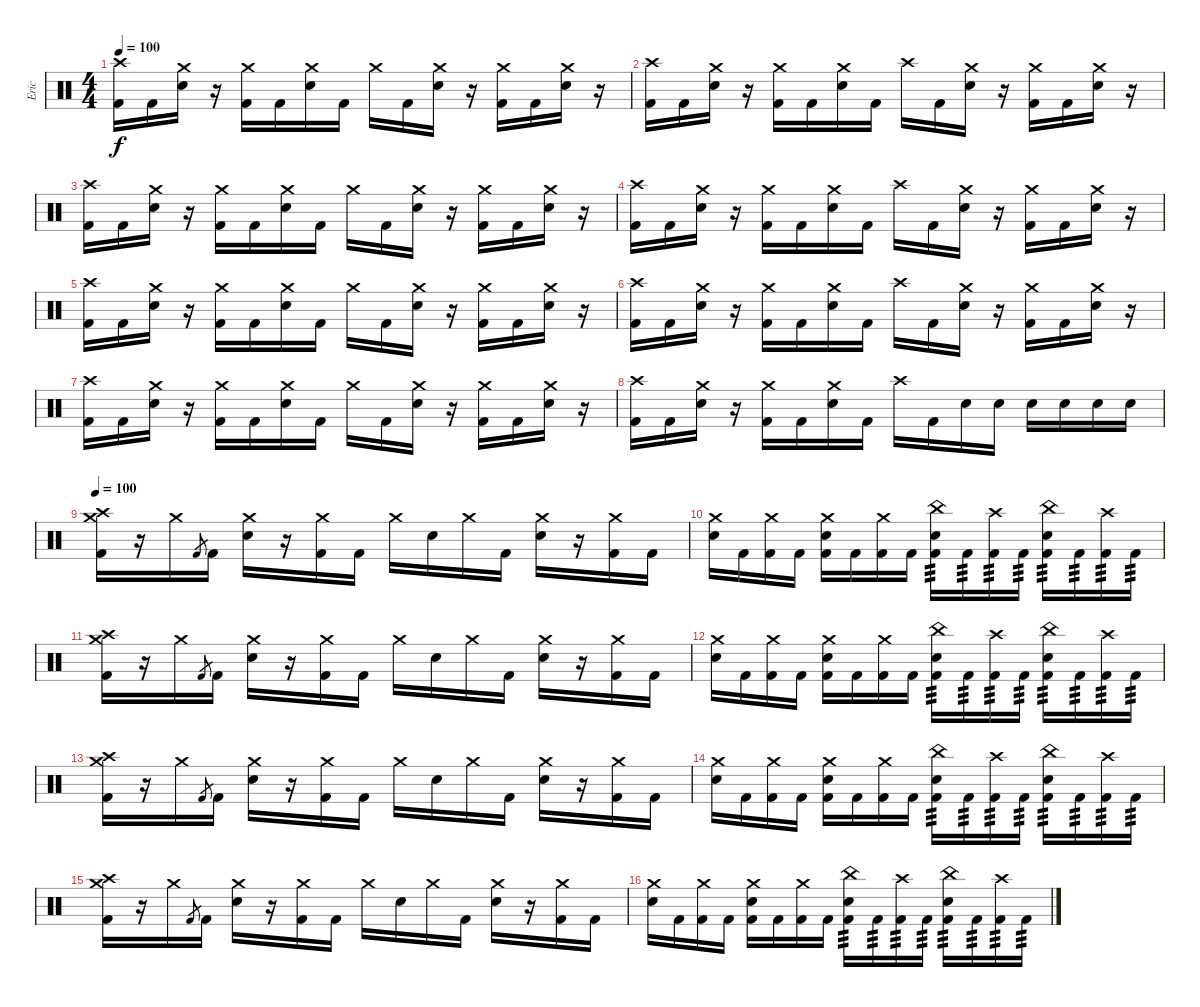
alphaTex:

\track ("Eric" "Eric") {instrument percussion}
\staff {score}
\articulation defaults
\ts (4 4)
\tempo 100
\clef neutral
\ks c
("Crash high (hit)" "Kick (hit) 2").16{dy f} "Kick (hit) 2".16 ("Crash medium (hit)" "Electric Snare (hit)").16 r.16 ("Crash medium (hit)" "Kick (hit) 2").16 "Kick (hit) 2".16 ("Crash medium (hit)" "Electric Snare (hit)").16 "Kick (hit) 2".16 "Crash medium (hit)".16 "Kick (hit) 2".16 ("Crash medium (hit)" "Electric Snare (hit)").16 r.16 ("Crash medium (hit)" "Kick (hit) 2").16 "Kick (hit) 2".16 ("Crash medium (hit)" "Electric Snare (hit)").16 r.16 |
("Crash high (hit)" "Kick (hit) 2").16 "Kick (hit) 2".16 ("Crash medium (hit)" "Electric Snare (hit)").16 r.16 ("Crash medium (hit)" "Kick (hit) 2").16 "Kick (hit) 2".16 ("Crash medium (hit)" "Electric Snare (hit)").16 "Kick (hit) 2".16 "Crash high (hit)".16 "Kick (hit) 2".16 ("Crash medium (hit)" "Electric Snare (hit)").16 r.16 ("Crash medium (hit)" "Kick (hit) 2").16 "Kick (hit) 2".16 ("Crash medium (hit)" "Electric Snare (hit)").16 r.16 |
("Crash high (hit)" "Kick (hit) 2").16 "Kick (hit) 2".16 ("Crash medium (hit)" "Electric Snare (hit)").16 r.16 ("Crash medium (hit)" "Kick (hit) 2").16 "Kick (hit) 2".16 ("Crash medium (hit)" "Electric Snare (hit)").16 "Kick (hit) 2".16 "Crash medium (hit)".16 "Kick (hit) 2".16 ("Crash medium (hit)" "Electric Snare (hit)").16 r.16 ("Crash medium (hit)" "Kick (hit) 2").16 "Kick (hit) 2".16 ("Crash medium (hit)" "Electric Snare (hit)").16 r.16 |
("Crash high (hit)" "Kick (hit) 2").16 "Kick (hit) 2".16 ("Crash medium (hit)" "Electric Snare (hit)").16 r.16 ("Crash medium (hit)" "Kick (hit) 2").16 "Kick (hit) 2".16 ("Crash medium (hit)" "Electric Snare (hit)").16 "Kick (hit) 2".16 "Crash high (hit)".16 "Kick (hit) 2".16 ("Crash medium (hit)" "Electric Snare (hit)").16 r.16 ("Crash medium (hit)" "Kick (hit) 2").16 "Kick (hit) 2".16 ("Crash medium (hit)" "Electric Snare (hit)").16 r.16 |
("Crash high (hit)" "Kick (hit) 2").16 "Kick (hit) 2".16 ("Crash medium (hit)" "Electric Snare (hit)").16 r.16 ("Crash medium (hit)" "Kick (hit) 2").16 "Kick (hit) 2".16 ("Crash medium (hit)" "Electric Snare (hit)").16 "Kick (hit) 2".16 "Crash medium (hit)".16 "Kick (hit) 2".16 ("Crash medium (hit)" "Electric Snare (hit)").16 r.16 ("Crash medium (hit)" "Kick (hit) 2").16 "Kick (hit) 2".16 ("Crash medium (hit)" "Electric Snare (hit)").16 r.16 |
("Crash high (hit)" "Kick (hit) 2").16 "Kick (hit) 2".16 ("Crash medium (hit)" "Electric Snare (hit)").16 r.16 ("Crash medium (hit)" "Kick (hit) 2").16 "Kick (hit) 2".16 ("Crash medium (hit)" "Electric Snare (hit)").16 "Kick (hit) 2".16 "Crash high (hit)".16 "Kick (hit) 2".16 ("Crash medium (hit)" "Electric Snare (hit)").16 r.16 ("Crash medium (hit)" "Kick (hit) 2").16 "Kick (hit) 2".16 ("Crash medium (hit)" "Electric Snare (hit)").16 r.16 |
("Crash high (hit)" "Kick (hit) 2").16 "Kick (hit) 2".16 ("Crash medium (hit)" "Electric Snare (hit)").16 r.16 ("Crash medium (hit)" "Kick (hit) 2").16 "Kick (hit) 2".16 ("Crash medium (hit)" "Electric Snare (hit)").16 "Kick (hit) 2".16 "Crash medium (hit)".16 "Kick (hit) 2".16 ("Crash medium (hit)" "Electric Snare (hit)").16 r.16 ("Crash medium (hit)" "Kick (hit) 2").16 "Kick (hit) 2".16 ("Crash medium (hit)" "Electric Snare (hit)").16 r.16 |
("Crash high (hit)" "Kick (hit) 2").16 "Kick (hit) 2".16 ("Crash medium (hit)" "Electric Snare (hit)").16 r.16 ("Crash medium (hit)" "Kick (hit) 2").16 "Kick (hit) 2".16 ("Crash medium (hit)" "Electric Snare (hit)").16 "Kick (hit) 2".16 "Crash high (hit)".16 "Kick (hit) 2".16 "Electric Snare (hit)".16 "Electric Snare (hit)".16 "Electric Snare (hit)".16 "Electric Snare (hit)".16 "Electric Snare (hit)".16 "Electric Snare (hit)".16 |
\tempo 100
("Crash high (hit)" "Crash medium (hit)" "Kick (hit) 2").16 r.16 "Crash medium (hit)".16 "Kick (hit) 2".8{gr} "Kick (hit) 2".16 ("Crash medium (hit)" "Electric Snare (hit)").16 r.16 ("Crash medium (hit)" "Kick (hit) 2").16 "Kick (hit) 2".16 "Crash medium (hit)".16 "Electric Snare (hit)".16 "Crash medium (hit)".16 "Kick (hit) 2".16 ("Crash medium (hit)" "Electric Snare (hit)").16 r.16 ("Crash medium (hit)" "Kick (hit) 2").16 "Kick (hit) 2".16 |
("Crash medium (hit)" "Electric Snare (hit)").16 "Kick (hit) 2".16 ("Crash medium (hit)" "Kick (hit) 2").16 "Kick (hit) 2".16 ("Crash medium (hit)" "Electric Snare (hit)" "Kick (hit) 2").16 "Kick (hit) 2".16 ("Crash medium (hit)" "Kick (hit) 2").16 "Kick (hit) 2".16 ("China (hit)" "Electric Snare (hit)" "Kick (hit) 2").16{tp 3} "Kick (hit) 2".16{tp 3} ("Crash high (hit)" "Kick (hit) 2").16{tp 3} "Kick (hit) 2".16{tp 3} ("China (hit)" "Electric Snare (hit)" "Kick (hit) 2").16{tp 3} "Kick (hit) 2".16{tp 3} ("Crash high (hit)" "Kick (hit) 2").16{tp 3} "Kick (hit) 2".16{tp 3} |
("Crash high (hit)" "Crash medium (hit)" "Kick (hit) 2").16 r.16 "Crash medium (hit)".16 "Kick (hit) 2".8{gr} "Kick (hit) 2".16 ("Crash medium (hit)" "Electric Snare (hit)").16 r.16 ("Crash medium (hit)" "Kick (hit) 2").16 "Kick (hit) 2".16 "Crash medium (hit)".16 "Electric Snare (hit)".16 "Crash medium (hit)".16 "Kick (hit) 2".16 ("Crash medium (hit)" "Electric Snare (hit)").16 r.16 ("Crash medium (hit)" "Kick (hit) 2").16 "Kick (hit) 2".16 |
("Crash medium (hit)" "Electric Snare (hit)").16 "Kick (hit) 2".16 ("Crash medium (hit)" "Kick (hit) 2").16 "Kick (hit) 2".16 ("Crash medium (hit)" "Electric Snare (hit)" "Kick (hit) 2").16 "Kick (hit) 2".16 ("Crash medium (hit)" "Kick (hit) 2").16 "Kick (hit) 2".16 ("China (hit)" "Electric Snare (hit)" "Kick (hit) 2").16{tp 3} "Kick (hit) 2".16{tp 3} ("Crash high (hit)" "Kick (hit) 2").16{tp 3} "Kick (hit) 2".16{tp 3} ("China (hit)" "Electric Snare (hit)" "Kick (hit) 2").16{tp 3} "Kick (hit) 2".16{tp 3} ("Crash high (hit)" "Kick (hit) 2").16{tp 3} "Kick (hit) 2".16{tp 3} |
("Crash high (hit)" "Crash medium (hit)" "Kick (hit) 2").16 r.16 "Crash medium (hit)".16 "Kick (hit) 2".8{gr} "Kick (hit) 2".16 ("Crash medium (hit)" "Electric Snare (hit)").16 r.16 ("Crash medium (hit)" "Kick (hit) 2").16 "Kick (hit) 2".16 "Crash medium (hit)".16 "Electric Snare (hit)".16 "Crash medium (hit)".16 "Kick (hit) 2".16 ("Crash medium (hit)" "Electric Snare (hit)").16 r.16 ("Crash medium (hit)" "Kick (hit) 2").16 "Kick (hit) 2".16 |
("Crash medium (hit)" "Electric Snare (hit)").16 "Kick (hit) 2".16 ("Crash medium (hit)" "Kick (hit) 2").16 "Kick (hit) 2".16 ("Crash medium (hit)" "Electric Snare (hit)" "Kick (hit) 2").16 "Kick (hit) 2".16 ("Crash medium (hit)" "Kick (hit) 2").16 "Kick (hit) 2".16 ("China (hit)" "Electric Snare (hit)" "Kick (hit) 2").16{tp 3} "Kick (hit) 2".16{tp 3} ("Crash high (hit)" "Kick (hit) 2").16{tp 3} "Kick (hit) 2".16{tp 3} ("China (hit)" "Electric Snare (hit)" "Kick (hit) 2").16{tp 3} "Kick (hit) 2".16{tp 3} ("Crash high (hit)" "Kick (hit) 2").16{tp 3} "Kick (hit) 2".16{tp 3} |
("Crash high (hit)" "Crash medium (hit)" "Kick (hit) 2").16 r.16 "Crash medium (hit)".16 "Kick (hit) 2".8{gr} "Kick (hit) 2".16 ("Crash medium (hit)" "Electric Snare (hit)").16 r.16 ("Crash medium (hit)" "Kick (hit) 2").16 "Kick (hit) 2".16 "Crash medium (hit)".16 "Electric Snare (hit)".16 "Crash medium (hit)".16 "Kick (hit) 2".16 ("Crash medium (hit)" "Electric Snare (hit)").16 r.16 ("Crash medium (hit)" "Kick (hit) 2").16 "Kick (hit) 2".16 |
("Crash medium (hit)" "Electric Snare (hit)").16 "Kick (hit) 2".16 ("Crash medium (hit)" "Kick (hit) 2").16 "Kick (hit) 2".16 ("Crash medium (hit)" "Electric Snare (hit)" "Kick (hit) 2").16 "Kick (hit) 2".16 ("Crash medium (hit)" "Kick (hit) 2").16 "Kick (hit) 2".16 ("China (hit)" "Electric Snare (hit)" "Kick (hit) 2").16{tp 3} "Kick (hit) 2".16{tp 3} ("Crash high (hit)" "Kick (hit) 2").16{tp 3} "Kick (hit) 2".16{tp 3} ("China (hit)" "Electric Snare (hit)" "Kick (hit) 2").16{tp 3} "Kick (hit) 2".16{tp 3} ("Crash high (hit)" "Kick (hit) 2").16{tp 3} "Kick (hit) 2".16{tp 3}
